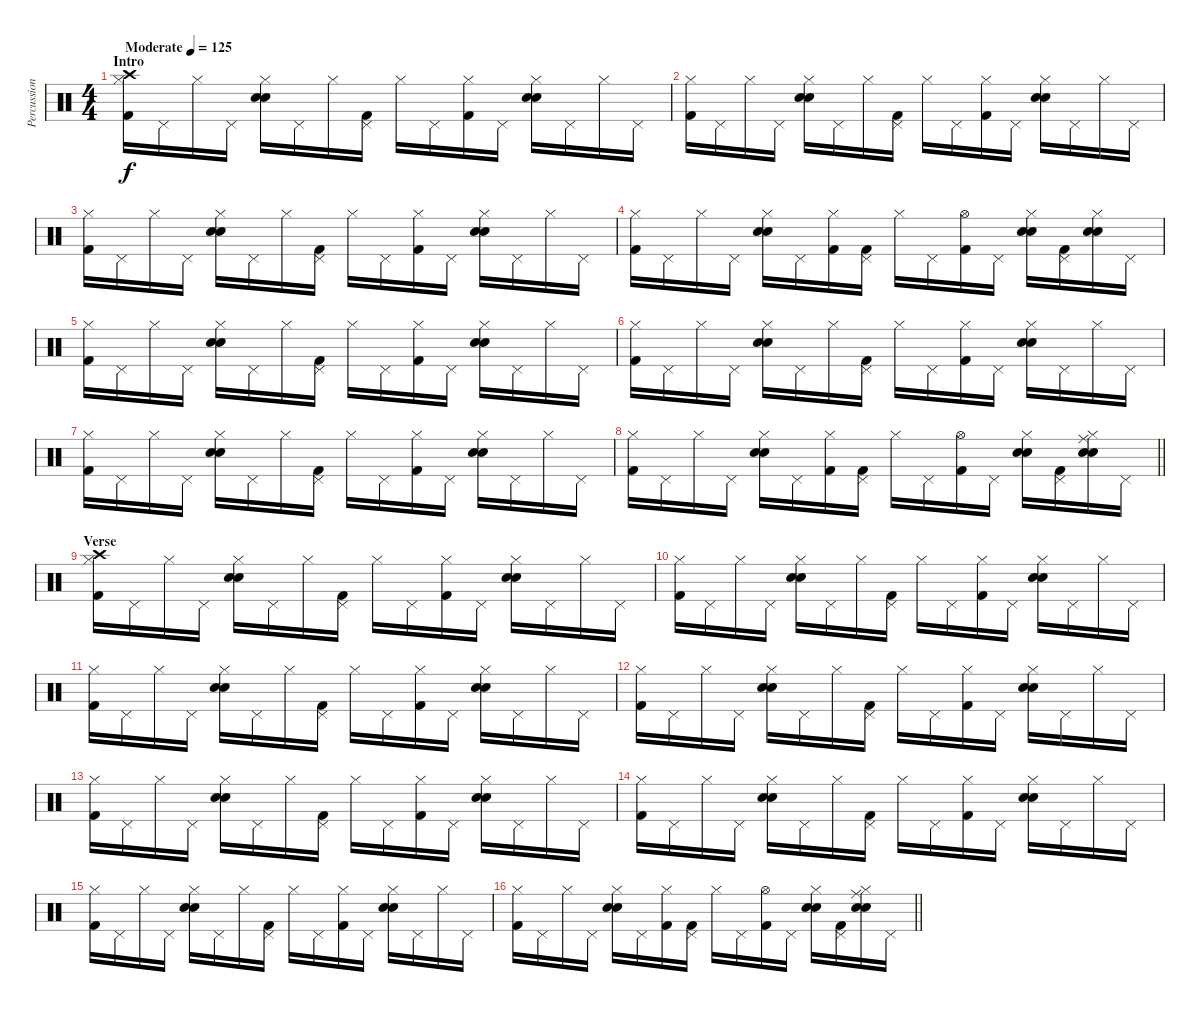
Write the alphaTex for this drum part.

\track ("Percussion" "Percussion") {instrument percussion}
\staff {score}
\articulation defaults
\ts (4 4)
\section ("" "Intro")
\tempo (125 "Moderate")
\clef neutral
\ks c
("Crash high (hit)" "Hi-Hat (closed)" "Kick (hit) 2").16{dy f} "Pedal Hi-Hat (hit)".16 "Hi-Hat (closed)".16 "Pedal Hi-Hat (hit)".16 ("Electric Snare (hit)" "Electric Snare (hit)" "Hi-Hat (closed)").16 "Pedal Hi-Hat (hit)".16 "Hi-Hat (closed)".16 ("Pedal Hi-Hat (hit)" "Kick (hit) 2").16 "Hi-Hat (closed)".16 "Pedal Hi-Hat (hit)".16 ("Hi-Hat (closed)" "Kick (hit) 2").16 "Pedal Hi-Hat (hit)".16 ("Electric Snare (hit)" "Electric Snare (hit)" "Hi-Hat (closed)").16 "Pedal Hi-Hat (hit)".16 "Hi-Hat (closed)".16 "Pedal Hi-Hat (hit)".16 |
("Hi-Hat (closed)" "Kick (hit) 2").16 "Pedal Hi-Hat (hit)".16 "Hi-Hat (closed)".16 "Pedal Hi-Hat (hit)".16 ("Electric Snare (hit)" "Electric Snare (hit)" "Hi-Hat (closed)").16 "Pedal Hi-Hat (hit)".16 "Hi-Hat (closed)".16 ("Pedal Hi-Hat (hit)" "Kick (hit) 2").16 "Hi-Hat (closed)".16 "Pedal Hi-Hat (hit)".16 ("Hi-Hat (closed)" "Kick (hit) 2").16 "Pedal Hi-Hat (hit)".16 ("Electric Snare (hit)" "Electric Snare (hit)" "Hi-Hat (closed)").16 "Pedal Hi-Hat (hit)".16 "Hi-Hat (closed)".16 "Pedal Hi-Hat (hit)".16 |
("Hi-Hat (closed)" "Kick (hit) 2").16 "Pedal Hi-Hat (hit)".16 "Hi-Hat (closed)".16 "Pedal Hi-Hat (hit)".16 ("Electric Snare (hit)" "Electric Snare (hit)" "Hi-Hat (closed)").16 "Pedal Hi-Hat (hit)".16 "Hi-Hat (closed)".16 ("Pedal Hi-Hat (hit)" "Kick (hit) 2").16 "Hi-Hat (closed)".16 "Pedal Hi-Hat (hit)".16 ("Hi-Hat (closed)" "Kick (hit) 2").16 "Pedal Hi-Hat (hit)".16 ("Electric Snare (hit)" "Electric Snare (hit)" "Hi-Hat (closed)").16 "Pedal Hi-Hat (hit)".16 "Hi-Hat (closed)".16 "Pedal Hi-Hat (hit)".16 |
("Hi-Hat (closed)" "Kick (hit) 2").16 "Pedal Hi-Hat (hit)".16 "Hi-Hat (closed)".16 "Pedal Hi-Hat (hit)".16 ("Electric Snare (hit)" "Electric Snare (hit)" "Hi-Hat (closed)").16 "Pedal Hi-Hat (hit)".16 ("Hi-Hat (closed)" "Kick (hit) 2").16 ("Pedal Hi-Hat (hit)" "Kick (hit) 2").16 "Hi-Hat (closed)".16 "Pedal Hi-Hat (hit)".16 ("Hi-Hat (open)" "Kick (hit) 2").16 "Pedal Hi-Hat (hit)".16 ("Electric Snare (hit)" "Electric Snare (hit)" "Hi-Hat (closed)").16 ("Pedal Hi-Hat (hit)" "Kick (hit) 2").16 ("Electric Snare (hit)" "Electric Snare (hit)" "Hi-Hat (closed)").16 "Pedal Hi-Hat (hit)".16 |
("Hi-Hat (closed)" "Kick (hit) 2").16 "Pedal Hi-Hat (hit)".16 "Hi-Hat (closed)".16 "Pedal Hi-Hat (hit)".16 ("Electric Snare (hit)" "Electric Snare (hit)" "Hi-Hat (closed)").16 "Pedal Hi-Hat (hit)".16 "Hi-Hat (closed)".16 ("Pedal Hi-Hat (hit)" "Kick (hit) 2").16 "Hi-Hat (closed)".16 "Pedal Hi-Hat (hit)".16 ("Hi-Hat (closed)" "Kick (hit) 2").16 "Pedal Hi-Hat (hit)".16 ("Electric Snare (hit)" "Electric Snare (hit)" "Hi-Hat (closed)").16 "Pedal Hi-Hat (hit)".16 "Hi-Hat (closed)".16 "Pedal Hi-Hat (hit)".16 |
("Hi-Hat (closed)" "Kick (hit) 2").16 "Pedal Hi-Hat (hit)".16 "Hi-Hat (closed)".16 "Pedal Hi-Hat (hit)".16 ("Electric Snare (hit)" "Electric Snare (hit)" "Hi-Hat (closed)").16 "Pedal Hi-Hat (hit)".16 "Hi-Hat (closed)".16 ("Pedal Hi-Hat (hit)" "Kick (hit) 2").16 "Hi-Hat (closed)".16 "Pedal Hi-Hat (hit)".16 ("Hi-Hat (closed)" "Kick (hit) 2").16 "Pedal Hi-Hat (hit)".16 ("Electric Snare (hit)" "Electric Snare (hit)" "Hi-Hat (closed)").16 "Pedal Hi-Hat (hit)".16 "Hi-Hat (closed)".16 "Pedal Hi-Hat (hit)".16 |
("Hi-Hat (closed)" "Kick (hit) 2").16 "Pedal Hi-Hat (hit)".16 "Hi-Hat (closed)".16 "Pedal Hi-Hat (hit)".16 ("Electric Snare (hit)" "Electric Snare (hit)" "Hi-Hat (closed)").16 "Pedal Hi-Hat (hit)".16 "Hi-Hat (closed)".16 ("Pedal Hi-Hat (hit)" "Kick (hit) 2").16 "Hi-Hat (closed)".16 "Pedal Hi-Hat (hit)".16 ("Hi-Hat (closed)" "Kick (hit) 2").16 "Pedal Hi-Hat (hit)".16 ("Electric Snare (hit)" "Electric Snare (hit)" "Hi-Hat (closed)").16 "Pedal Hi-Hat (hit)".16 "Hi-Hat (closed)".16 "Pedal Hi-Hat (hit)".16 |
\barLineRight lightlight
("Hi-Hat (closed)" "Kick (hit) 2").16 "Pedal Hi-Hat (hit)".16 "Hi-Hat (closed)".16 "Pedal Hi-Hat (hit)".16 ("Electric Snare (hit)" "Electric Snare (hit)" "Hi-Hat (closed)").16 "Pedal Hi-Hat (hit)".16 ("Hi-Hat (closed)" "Kick (hit) 2").16 ("Pedal Hi-Hat (hit)" "Kick (hit) 2").16 "Hi-Hat (closed)".16 "Pedal Hi-Hat (hit)".16 ("Hi-Hat (open)" "Kick (hit) 2").16 "Pedal Hi-Hat (hit)".16 ("Electric Snare (hit)" "Electric Snare (hit)" "Hi-Hat (closed)").16 ("Pedal Hi-Hat (hit)" "Kick (hit) 2").16 ("Ride (middle)" "Electric Snare (hit)" "Electric Snare (hit)" "Hi-Hat (closed)").16 "Pedal Hi-Hat (hit)".16 |
\section ("" "Verse")
("Crash high (hit)" "Hi-Hat (closed)" "Kick (hit) 2").16 "Pedal Hi-Hat (hit)".16 "Hi-Hat (closed)".16 "Pedal Hi-Hat (hit)".16 ("Electric Snare (hit)" "Electric Snare (hit)" "Hi-Hat (closed)").16 "Pedal Hi-Hat (hit)".16 "Hi-Hat (closed)".16 ("Pedal Hi-Hat (hit)" "Kick (hit) 2").16 "Hi-Hat (closed)".16 "Pedal Hi-Hat (hit)".16 ("Hi-Hat (closed)" "Kick (hit) 2").16 "Pedal Hi-Hat (hit)".16 ("Electric Snare (hit)" "Electric Snare (hit)" "Hi-Hat (closed)").16 "Pedal Hi-Hat (hit)".16 "Hi-Hat (closed)".16 "Pedal Hi-Hat (hit)".16 |
("Hi-Hat (closed)" "Kick (hit) 2").16 "Pedal Hi-Hat (hit)".16 "Hi-Hat (closed)".16 "Pedal Hi-Hat (hit)".16 ("Electric Snare (hit)" "Electric Snare (hit)" "Hi-Hat (closed)").16 "Pedal Hi-Hat (hit)".16 "Hi-Hat (closed)".16 ("Pedal Hi-Hat (hit)" "Kick (hit) 2").16 "Hi-Hat (closed)".16 "Pedal Hi-Hat (hit)".16 ("Hi-Hat (closed)" "Kick (hit) 2").16 "Pedal Hi-Hat (hit)".16 ("Electric Snare (hit)" "Electric Snare (hit)" "Hi-Hat (closed)").16 "Pedal Hi-Hat (hit)".16 "Hi-Hat (closed)".16 "Pedal Hi-Hat (hit)".16 |
("Hi-Hat (closed)" "Kick (hit) 2").16 "Pedal Hi-Hat (hit)".16 "Hi-Hat (closed)".16 "Pedal Hi-Hat (hit)".16 ("Electric Snare (hit)" "Electric Snare (hit)" "Hi-Hat (closed)").16 "Pedal Hi-Hat (hit)".16 "Hi-Hat (closed)".16 ("Pedal Hi-Hat (hit)" "Kick (hit) 2").16 "Hi-Hat (closed)".16 "Pedal Hi-Hat (hit)".16 ("Hi-Hat (closed)" "Kick (hit) 2").16 "Pedal Hi-Hat (hit)".16 ("Electric Snare (hit)" "Electric Snare (hit)" "Hi-Hat (closed)").16 "Pedal Hi-Hat (hit)".16 "Hi-Hat (closed)".16 "Pedal Hi-Hat (hit)".16 |
("Hi-Hat (closed)" "Kick (hit) 2").16 "Pedal Hi-Hat (hit)".16 "Hi-Hat (closed)".16 "Pedal Hi-Hat (hit)".16 ("Electric Snare (hit)" "Electric Snare (hit)" "Hi-Hat (closed)").16 "Pedal Hi-Hat (hit)".16 "Hi-Hat (closed)".16 ("Pedal Hi-Hat (hit)" "Kick (hit) 2").16 "Hi-Hat (closed)".16 "Pedal Hi-Hat (hit)".16 ("Hi-Hat (closed)" "Kick (hit) 2").16 "Pedal Hi-Hat (hit)".16 ("Electric Snare (hit)" "Electric Snare (hit)" "Hi-Hat (closed)").16 "Pedal Hi-Hat (hit)".16 "Hi-Hat (closed)".16 "Pedal Hi-Hat (hit)".16 |
("Hi-Hat (closed)" "Kick (hit) 2").16 "Pedal Hi-Hat (hit)".16 "Hi-Hat (closed)".16 "Pedal Hi-Hat (hit)".16 ("Electric Snare (hit)" "Electric Snare (hit)" "Hi-Hat (closed)").16 "Pedal Hi-Hat (hit)".16 "Hi-Hat (closed)".16 ("Pedal Hi-Hat (hit)" "Kick (hit) 2").16 "Hi-Hat (closed)".16 "Pedal Hi-Hat (hit)".16 ("Hi-Hat (closed)" "Kick (hit) 2").16 "Pedal Hi-Hat (hit)".16 ("Electric Snare (hit)" "Electric Snare (hit)" "Hi-Hat (closed)").16 "Pedal Hi-Hat (hit)".16 "Hi-Hat (closed)".16 "Pedal Hi-Hat (hit)".16 |
("Hi-Hat (closed)" "Kick (hit) 2").16 "Pedal Hi-Hat (hit)".16 "Hi-Hat (closed)".16 "Pedal Hi-Hat (hit)".16 ("Electric Snare (hit)" "Electric Snare (hit)" "Hi-Hat (closed)").16 "Pedal Hi-Hat (hit)".16 "Hi-Hat (closed)".16 ("Pedal Hi-Hat (hit)" "Kick (hit) 2").16 "Hi-Hat (closed)".16 "Pedal Hi-Hat (hit)".16 ("Hi-Hat (closed)" "Kick (hit) 2").16 "Pedal Hi-Hat (hit)".16 ("Electric Snare (hit)" "Electric Snare (hit)" "Hi-Hat (closed)").16 "Pedal Hi-Hat (hit)".16 "Hi-Hat (closed)".16 "Pedal Hi-Hat (hit)".16 |
("Hi-Hat (closed)" "Kick (hit) 2").16 "Pedal Hi-Hat (hit)".16 "Hi-Hat (closed)".16 "Pedal Hi-Hat (hit)".16 ("Electric Snare (hit)" "Electric Snare (hit)" "Hi-Hat (closed)").16 "Pedal Hi-Hat (hit)".16 "Hi-Hat (closed)".16 ("Pedal Hi-Hat (hit)" "Kick (hit) 2").16 "Hi-Hat (closed)".16 "Pedal Hi-Hat (hit)".16 ("Hi-Hat (closed)" "Kick (hit) 2").16 "Pedal Hi-Hat (hit)".16 ("Electric Snare (hit)" "Electric Snare (hit)" "Hi-Hat (closed)").16 "Pedal Hi-Hat (hit)".16 "Hi-Hat (closed)".16 "Pedal Hi-Hat (hit)".16 |
\barLineRight lightlight
("Hi-Hat (closed)" "Kick (hit) 2").16 "Pedal Hi-Hat (hit)".16 "Hi-Hat (closed)".16 "Pedal Hi-Hat (hit)".16 ("Electric Snare (hit)" "Electric Snare (hit)" "Hi-Hat (closed)").16 "Pedal Hi-Hat (hit)".16 ("Hi-Hat (closed)" "Kick (hit) 2").16 ("Pedal Hi-Hat (hit)" "Kick (hit) 2").16 "Hi-Hat (closed)".16 "Pedal Hi-Hat (hit)".16 ("Hi-Hat (open)" "Kick (hit) 2").16 "Pedal Hi-Hat (hit)".16 ("Electric Snare (hit)" "Electric Snare (hit)" "Hi-Hat (closed)").16 ("Pedal Hi-Hat (hit)" "Kick (hit) 2").16 ("Ride (middle)" "Electric Snare (hit)" "Electric Snare (hit)" "Hi-Hat (closed)").16 "Pedal Hi-Hat (hit)".16
